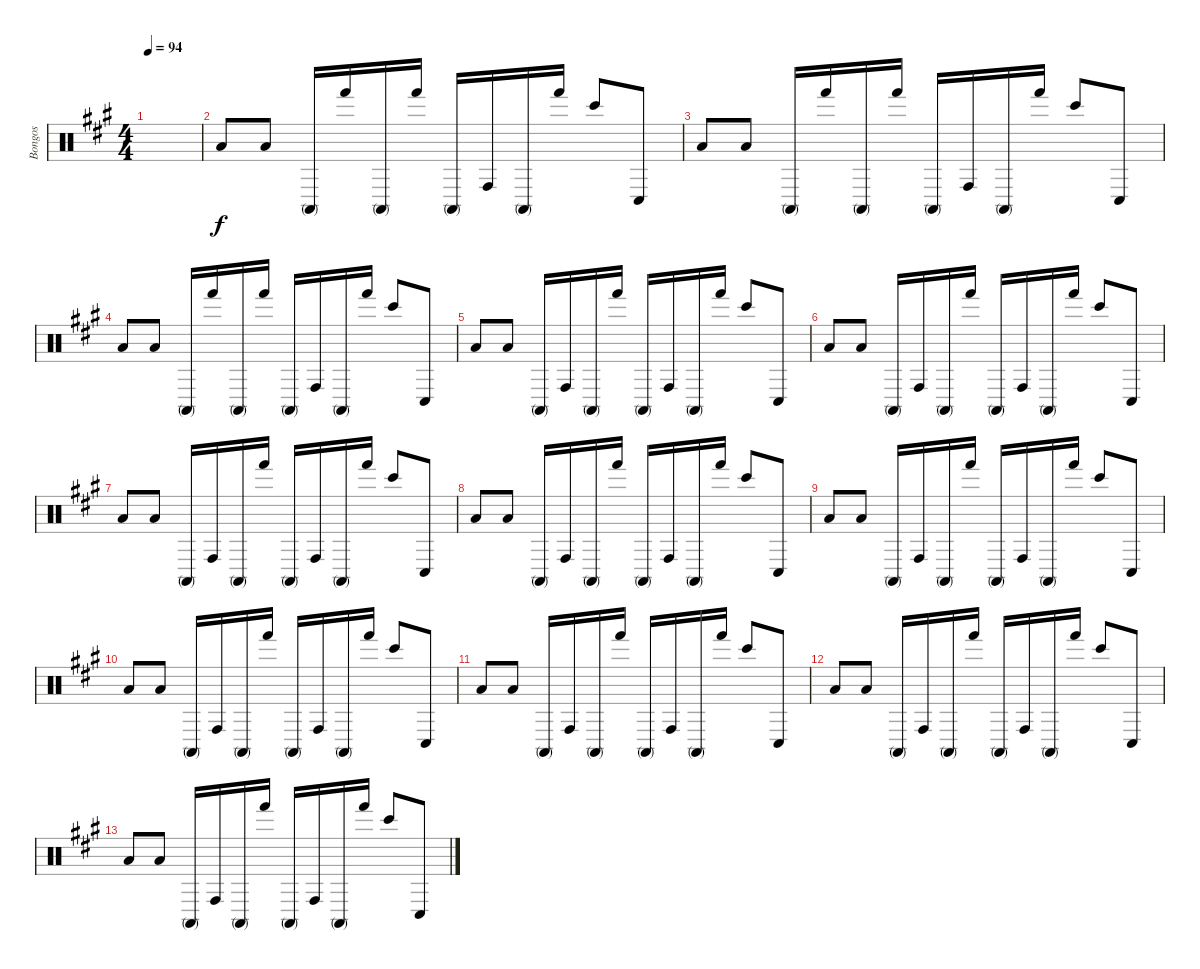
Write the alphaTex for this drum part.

\track ("Bongos" "Bongos") {instrument percussion}
\staff {score}
\articulation defaults
\ts (4 4)
\tempo 94
\clef neutral
\ks a
|
"Low Floor Tom (hit)".8{volume 10} "Low Floor Tom (hit)".8 "Conga high (mute)".16 "Hand (hit)".16 "Conga high (mute)".16 "Hand (hit)".16 "Conga high (mute)".16 "Conga high (hit)".16 "Conga high (mute)".16 "Hand (hit)".16 "Bongo High (hit)".8 "Conga low (hit)".8 |
"Low Floor Tom (hit)".8 "Low Floor Tom (hit)".8 "Conga high (mute)".16 "Hand (hit)".16 "Conga high (mute)".16 "Hand (hit)".16 "Conga high (mute)".16 "Conga high (hit)".16 "Conga high (mute)".16 "Hand (hit)".16 "Bongo High (hit)".8 "Conga low (hit)".8 |
"Low Floor Tom (hit)".8 "Low Floor Tom (hit)".8 "Conga high (mute)".16 "Hand (hit)".16 "Conga high (mute)".16 "Hand (hit)".16 "Conga high (mute)".16 "Conga high (hit)".16 "Conga high (mute)".16 "Hand (hit)".16 "Bongo High (hit)".8 "Conga low (hit)".8 |
"Low Floor Tom (hit)".8 "Low Floor Tom (hit)".8 "Conga high (mute)".16 "Conga high (hit)".16 "Conga high (mute)".16 "Hand (hit)".16 "Conga high (mute)".16 "Conga high (hit)".16 "Conga high (mute)".16 "Hand (hit)".16 "Bongo High (hit)".8 "Conga low (hit)".8 |
"Low Floor Tom (hit)".8 "Low Floor Tom (hit)".8 "Conga high (mute)".16 "Conga high (hit)".16 "Conga high (mute)".16 "Hand (hit)".16 "Conga high (mute)".16 "Conga high (hit)".16 "Conga high (mute)".16 "Hand (hit)".16 "Bongo High (hit)".8 "Conga low (hit)".8 |
"Low Floor Tom (hit)".8 "Low Floor Tom (hit)".8 "Conga high (mute)".16 "Conga high (hit)".16 "Conga high (mute)".16 "Hand (hit)".16 "Conga high (mute)".16 "Conga high (hit)".16 "Conga high (mute)".16 "Hand (hit)".16 "Bongo High (hit)".8 "Conga low (hit)".8 |
"Low Floor Tom (hit)".8 "Low Floor Tom (hit)".8 "Conga high (mute)".16 "Conga high (hit)".16 "Conga high (mute)".16 "Hand (hit)".16 "Conga high (mute)".16 "Conga high (hit)".16 "Conga high (mute)".16 "Hand (hit)".16 "Bongo High (hit)".8 "Conga low (hit)".8 |
"Low Floor Tom (hit)".8 "Low Floor Tom (hit)".8 "Conga high (mute)".16 "Conga high (hit)".16 "Conga high (mute)".16 "Hand (hit)".16 "Conga high (mute)".16 "Conga high (hit)".16 "Conga high (mute)".16 "Hand (hit)".16 "Bongo High (hit)".8 "Conga low (hit)".8 |
"Low Floor Tom (hit)".8 "Low Floor Tom (hit)".8 "Conga high (mute)".16 "Conga high (hit)".16 "Conga high (mute)".16 "Hand (hit)".16 "Conga high (mute)".16 "Conga high (hit)".16 "Conga high (mute)".16 "Hand (hit)".16 "Bongo High (hit)".8 "Conga low (hit)".8 |
"Low Floor Tom (hit)".8 "Low Floor Tom (hit)".8 "Conga high (mute)".16 "Conga high (hit)".16 "Conga high (mute)".16 "Hand (hit)".16 "Conga high (mute)".16 "Conga high (hit)".16 "Conga high (mute)".16 "Hand (hit)".16 "Bongo High (hit)".8 "Conga low (hit)".8 |
"Low Floor Tom (hit)".8 "Low Floor Tom (hit)".8 "Conga high (mute)".16 "Conga high (hit)".16 "Conga high (mute)".16 "Hand (hit)".16 "Conga high (mute)".16 "Conga high (hit)".16 "Conga high (mute)".16 "Hand (hit)".16 "Bongo High (hit)".8 "Conga low (hit)".8 |
"Low Floor Tom (hit)".8 "Low Floor Tom (hit)".8 "Conga high (mute)".16 "Conga high (hit)".16 "Conga high (mute)".16 "Hand (hit)".16 "Conga high (mute)".16 "Conga high (hit)".16 "Conga high (mute)".16 "Hand (hit)".16 "Bongo High (hit)".8 "Conga low (hit)".8
